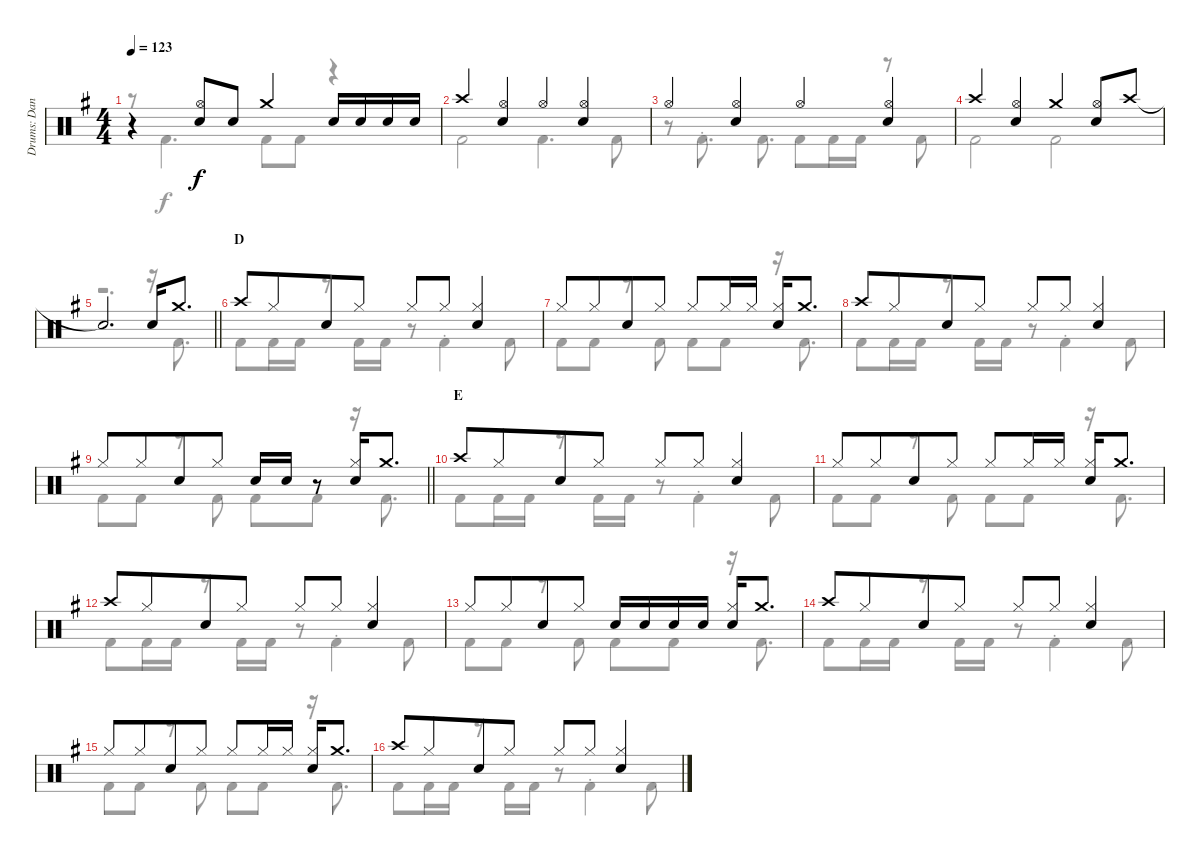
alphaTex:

\track ("Drums: Dana" "Drums: Dan") {instrument percussion}
\staff {score}
\articulation defaults
\voice
\ts (4 4)
\tempo 123
\clef neutral
\ks g
r.4{dy f} ("Hi-Hat (open)" "Snare (hit) 2").8 "Snare (hit) 2".8 "Crash medium (hit)".4 "Snare (hit) 2".16 "Snare (hit) 2".16 "Snare (hit) 2".16 "Snare (hit) 2".16 |
"Crash high (hit)".4 ("Hi-Hat (open)" "Snare (hit) 2").4 "Hi-Hat (open)".4 ("Hi-Hat (open)" "Snare (hit) 2").4 |
"Hi-Hat (open)".4 ("Hi-Hat (open)" "Snare (hit) 2").4 "Hi-Hat (open)".4 ("Hi-Hat (open)" "Snare (hit) 2").4 |
"Crash high (hit)".4 ("Hi-Hat (open)" "Snare (hit) 2").4 "Crash medium (hit)".4 ("Hi-Hat (open)" "Snare (hit) 2").8 "Crash high (hit)".8 |
\barLineRight lightlight "Snare (hit)"{t}.2{d} "Snare (hit) 2".16 "Crash medium (hit)".8{d}
|
\section ("" "D")
"Crash high (hit)".8 "Hi-Hat (closed)".8{beam merge} "Snare (hit) 2".8 "Hi-Hat (closed)".8 "Hi-Hat (closed)".8 "Hi-Hat (closed)".8 ("Hi-Hat (closed)" "Snare (hit) 2").4 |
"Hi-Hat (closed)".8 "Hi-Hat (closed)".8{beam merge} "Snare (hit) 2".8 "Hi-Hat (closed)".8 "Hi-Hat (closed)".8 "Hi-Hat (closed)".16 "Hi-Hat (closed)".16 ("Hi-Hat (closed)" "Snare (hit) 2").16 "Crash medium (hit)".8{d} |
"Crash high (hit)".8 "Hi-Hat (closed)".8{beam merge} "Snare (hit) 2".8 "Hi-Hat (closed)".8 "Hi-Hat (closed)".8 "Hi-Hat (closed)".8 ("Hi-Hat (closed)" "Snare (hit) 2").4 |
\barLineRight lightlight "Hi-Hat (closed)".8 "Hi-Hat (closed)".8{beam merge} "Snare (hit) 2".8 "Hi-Hat (closed)".8 "Snare (hit) 2".16 "Snare (hit) 2".16
r.8 ("Hi-Hat (closed)" "Snare (hit) 2").16 "Crash medium (hit)".8{d} |
\section ("" "E")
"Crash high (hit)".8 "Hi-Hat (closed)".8{beam merge} "Snare (hit) 2".8 "Hi-Hat (closed)".8 "Hi-Hat (closed)".8 "Hi-Hat (closed)".8 ("Hi-Hat (closed)" "Snare (hit) 2").4 |
"Hi-Hat (closed)".8 "Hi-Hat (closed)".8{beam merge} "Snare (hit) 2".8 "Hi-Hat (closed)".8 "Hi-Hat (closed)".8 "Hi-Hat (closed)".16 "Hi-Hat (closed)".16 ("Hi-Hat (closed)" "Snare (hit) 2").16 "Crash medium (hit)".8{d} |
"Crash high (hit)".8 "Hi-Hat (closed)".8{beam merge} "Snare (hit) 2".8 "Hi-Hat (closed)".8 "Hi-Hat (closed)".8 "Hi-Hat (closed)".8 ("Hi-Hat (closed)" "Snare (hit) 2").4 |
"Hi-Hat (closed)".8 "Hi-Hat (closed)".8{beam merge} "Snare (hit) 2".8 "Hi-Hat (closed)".8 "Snare (hit) 2".16 "Snare (hit) 2".16 "Snare (hit) 2".16 "Snare (hit) 2".16 ("Hi-Hat (closed)" "Snare (hit) 2").16 "Crash medium (hit)".8{d} |
"Crash high (hit)".8 "Hi-Hat (closed)".8{beam merge} "Snare (hit) 2".8 "Hi-Hat (closed)".8 "Hi-Hat (closed)".8 "Hi-Hat (closed)".8 ("Hi-Hat (closed)" "Snare (hit) 2").4 |
"Hi-Hat (closed)".8 "Hi-Hat (closed)".8{beam merge} "Snare (hit) 2".8 "Hi-Hat (closed)".8 "Hi-Hat (closed)".8 "Hi-Hat (closed)".16 "Hi-Hat (closed)".16 ("Hi-Hat (closed)" "Snare (hit) 2").16 "Crash medium (hit)".8{d} |
"Crash high (hit)".8 "Hi-Hat (closed)".8{beam merge} "Snare (hit) 2".8 "Hi-Hat (closed)".8 "Hi-Hat (closed)".8 "Hi-Hat (closed)".8 ("Hi-Hat (closed)" "Snare (hit) 2").4
\voice
\clef neutral
\ottava regular
\simile none
\ks g
r.8{dy f} "Kick (hit) 2".4{d} "Kick (hit) 2".8 "Kick (hit) 2".8 r.4 |
"Kick (hit) 2".2 "Kick (hit) 2".4{d} "Kick (hit) 2".8 |
r.8 "Kick (hit) 2"{st}.8{d} "Kick (hit) 2".8{d} "Kick (hit) 2".8 "Kick (hit) 2".16 "Kick (hit) 2".16 r.8 "Kick (hit) 2".8 |
"Kick (hit) 2".2 "Kick (hit) 2".2 |
\barLineRight lightlight
r.2{d} r.16 "Kick (hit) 2".8{d} |
"Kick (hit) 2".8 "Kick (hit) 2".16 "Kick (hit) 2".16 r.8 "Kick (hit) 2".16 "Kick (hit) 2".16 r.8 "Kick (hit) 2"{st}.4 "Kick (hit) 2".8 |
"Kick (hit) 2".8 "Kick (hit) 2".8 r.8 "Kick (hit) 2".8 "Kick (hit) 2".8 "Kick (hit) 2".8 r.16 "Kick (hit) 2".8{d} |
"Kick (hit) 2".8 "Kick (hit) 2".16 "Kick (hit) 2".16 r.8 "Kick (hit) 2".16 "Kick (hit) 2".16 r.8 "Kick (hit) 2"{st}.4 "Kick (hit) 2".8 |
\barLineRight lightlight "Kick (hit) 2".8 "Kick (hit) 2".8
r.8 "Kick (hit) 2".8 "Kick (hit) 2".8 "Kick (hit) 2".8 r.16 "Kick (hit) 2".8{d} |
"Kick (hit) 2".8 "Kick (hit) 2".16 "Kick (hit) 2".16 r.8 "Kick (hit) 2".16 "Kick (hit) 2".16 r.8 "Kick (hit) 2"{st}.4 "Kick (hit) 2".8 |
"Kick (hit) 2".8 "Kick (hit) 2".8 r.8 "Kick (hit) 2".8 "Kick (hit) 2".8 "Kick (hit) 2".8 r.16 "Kick (hit) 2".8{d} |
"Kick (hit) 2".8 "Kick (hit) 2".16 "Kick (hit) 2".16 r.8 "Kick (hit) 2".16 "Kick (hit) 2".16 r.8 "Kick (hit) 2"{st}.4 "Kick (hit) 2".8 |
"Kick (hit) 2".8 "Kick (hit) 2".8 r.8 "Kick (hit) 2".8 "Kick (hit) 2".8 "Kick (hit) 2".8 r.16 "Kick (hit) 2".8{d} |
"Kick (hit) 2".8 "Kick (hit) 2".16 "Kick (hit) 2".16 r.8 "Kick (hit) 2".16 "Kick (hit) 2".16 r.8 "Kick (hit) 2"{st}.4 "Kick (hit) 2".8 |
"Kick (hit) 2".8 "Kick (hit) 2".8 r.8 "Kick (hit) 2".8 "Kick (hit) 2".8 "Kick (hit) 2".8 r.16 "Kick (hit) 2".8{d} |
"Kick (hit) 2".8 "Kick (hit) 2".16 "Kick (hit) 2".16 r.8 "Kick (hit) 2".16 "Kick (hit) 2".16 r.8 "Kick (hit) 2"{st}.4 "Kick (hit) 2".8
